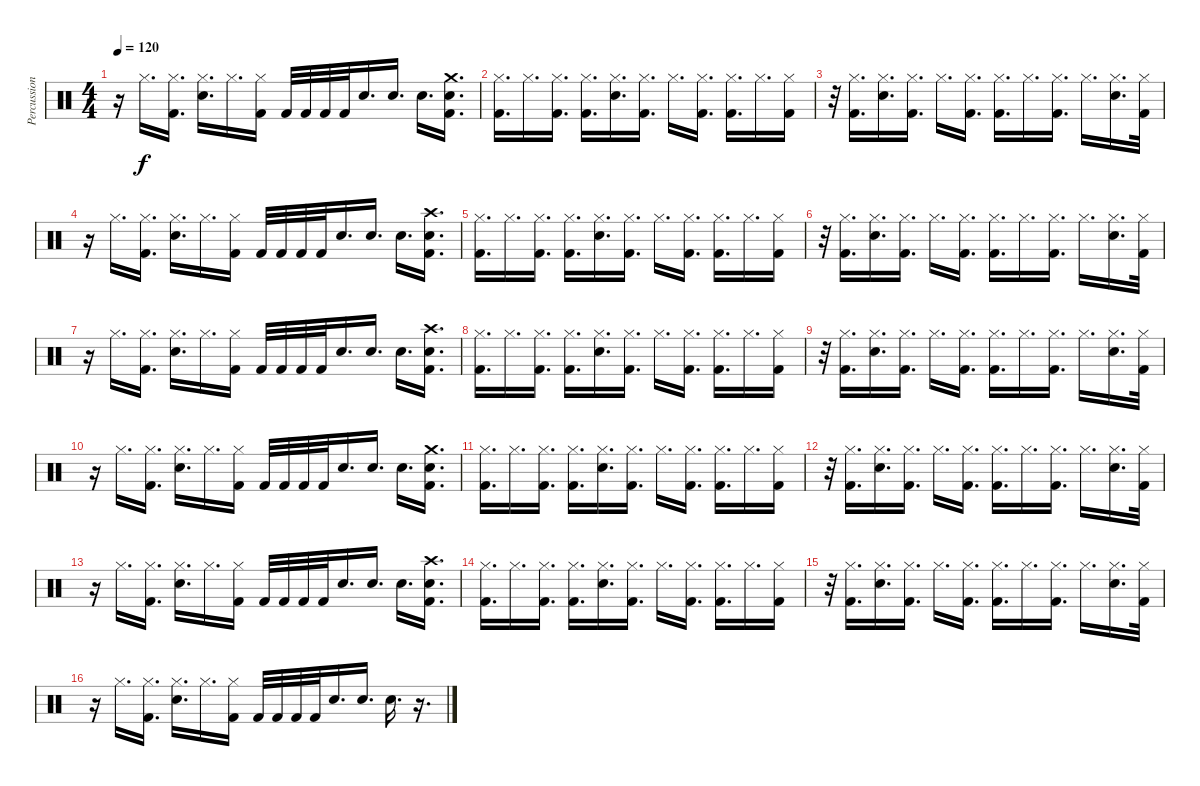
\track ("Percussion" "Percussion") {instrument percussion}
\staff {score}
\articulation defaults
\ts (4 4)
\tempo 120
\clef neutral
\ks c
r.16{dy f} "Hi-Hat (closed)".16{d} ("Hi-Hat (closed)" "Kick (hit) 2").16{d} ("Hi-Hat (closed)" "Electric Snare (hit)").16{d} "Hi-Hat (closed)".16{d} ("Hi-Hat (closed)" "Kick (hit) 2").16 "Kick (hit) 2".32 "Kick (hit) 2".32 "Kick (hit) 2".32 "Kick (hit) 2".32 "Electric Snare (hit)".16{d} "Electric Snare (hit)".16{d} "Electric Snare (hit)".16{d} ("Crash medium (hit)" "Electric Snare (hit)" "Kick (hit) 2").16{d} |
("Hi-Hat (closed)" "Kick (hit) 2").16{d} "Hi-Hat (closed)".16{d} ("Hi-Hat (closed)" "Kick (hit) 2").16{d} ("Hi-Hat (closed)" "Kick (hit) 2").16{d} ("Hi-Hat (closed)" "Electric Snare (hit)").16{d} ("Hi-Hat (closed)" "Kick (hit) 2").16{d} "Hi-Hat (closed)".16{d} ("Hi-Hat (closed)" "Kick (hit) 2").16{d} ("Hi-Hat (closed)" "Kick (hit) 2").16{d} "Hi-Hat (closed)".16{d} ("Hi-Hat (closed)" "Kick (hit) 2").16 |
r.32 ("Hi-Hat (closed)" "Kick (hit) 2").16{d} ("Hi-Hat (closed)" "Electric Snare (hit)").16{d} ("Hi-Hat (closed)" "Kick (hit) 2").16{d} "Hi-Hat (closed)".16{d} ("Hi-Hat (closed)" "Kick (hit) 2").16{d} ("Hi-Hat (closed)" "Kick (hit) 2").16{d} "Hi-Hat (closed)".16{d} ("Hi-Hat (closed)" "Kick (hit) 2").16{d} "Hi-Hat (closed)".16{d} ("Hi-Hat (closed)" "Electric Snare (hit)").16{d} ("Hi-Hat (closed)" "Kick (hit) 2").32 |
r.16 "Hi-Hat (closed)".16{d} ("Hi-Hat (closed)" "Kick (hit) 2").16{d} ("Hi-Hat (closed)" "Electric Snare (hit)").16{d} "Hi-Hat (closed)".16{d} ("Hi-Hat (closed)" "Kick (hit) 2").16 "Kick (hit) 2".32 "Kick (hit) 2".32 "Kick (hit) 2".32 "Kick (hit) 2".32 "Electric Snare (hit)".16{d} "Electric Snare (hit)".16{d} "Electric Snare (hit)".16{d} ("Crash high (hit)" "Electric Snare (hit)" "Kick (hit) 2").16{d} |
("Hi-Hat (closed)" "Kick (hit) 2").16{d} "Hi-Hat (closed)".16{d} ("Hi-Hat (closed)" "Kick (hit) 2").16{d} ("Hi-Hat (closed)" "Kick (hit) 2").16{d} ("Hi-Hat (closed)" "Electric Snare (hit)").16{d} ("Hi-Hat (closed)" "Kick (hit) 2").16{d} "Hi-Hat (closed)".16{d} ("Hi-Hat (closed)" "Kick (hit) 2").16{d} ("Hi-Hat (closed)" "Kick (hit) 2").16{d} "Hi-Hat (closed)".16{d} ("Hi-Hat (closed)" "Kick (hit) 2").16 |
r.32 ("Hi-Hat (closed)" "Kick (hit) 2").16{d} ("Hi-Hat (closed)" "Electric Snare (hit)").16{d} ("Hi-Hat (closed)" "Kick (hit) 2").16{d} "Hi-Hat (closed)".16{d} ("Hi-Hat (closed)" "Kick (hit) 2").16{d} ("Hi-Hat (closed)" "Kick (hit) 2").16{d} "Hi-Hat (closed)".16{d} ("Hi-Hat (closed)" "Kick (hit) 2").16{d} "Hi-Hat (closed)".16{d} ("Hi-Hat (closed)" "Electric Snare (hit)").16{d} ("Hi-Hat (closed)" "Kick (hit) 2").32 |
r.16 "Hi-Hat (closed)".16{d} ("Hi-Hat (closed)" "Kick (hit) 2").16{d} ("Hi-Hat (closed)" "Electric Snare (hit)").16{d} "Hi-Hat (closed)".16{d} ("Hi-Hat (closed)" "Kick (hit) 2").16 "Kick (hit) 2".32 "Kick (hit) 2".32 "Kick (hit) 2".32 "Kick (hit) 2".32 "Electric Snare (hit)".16{d} "Electric Snare (hit)".16{d} "Electric Snare (hit)".16{d} ("Crash high (hit)" "Electric Snare (hit)" "Kick (hit) 2").16{d} |
("Hi-Hat (closed)" "Kick (hit) 2").16{d} "Hi-Hat (closed)".16{d} ("Hi-Hat (closed)" "Kick (hit) 2").16{d} ("Hi-Hat (closed)" "Kick (hit) 2").16{d} ("Hi-Hat (closed)" "Electric Snare (hit)").16{d} ("Hi-Hat (closed)" "Kick (hit) 2").16{d} "Hi-Hat (closed)".16{d} ("Hi-Hat (closed)" "Kick (hit) 2").16{d} ("Hi-Hat (closed)" "Kick (hit) 2").16{d} "Hi-Hat (closed)".16{d} ("Hi-Hat (closed)" "Kick (hit) 2").16 |
r.32 ("Hi-Hat (closed)" "Kick (hit) 2").16{d} ("Hi-Hat (closed)" "Electric Snare (hit)").16{d} ("Hi-Hat (closed)" "Kick (hit) 2").16{d} "Hi-Hat (closed)".16{d} ("Hi-Hat (closed)" "Kick (hit) 2").16{d} ("Hi-Hat (closed)" "Kick (hit) 2").16{d} "Hi-Hat (closed)".16{d} ("Hi-Hat (closed)" "Kick (hit) 2").16{d} "Hi-Hat (closed)".16{d} ("Hi-Hat (closed)" "Electric Snare (hit)").16{d} ("Hi-Hat (closed)" "Kick (hit) 2").32 |
r.16 "Hi-Hat (closed)".16{d} ("Hi-Hat (closed)" "Kick (hit) 2").16{d} ("Hi-Hat (closed)" "Electric Snare (hit)").16{d} "Hi-Hat (closed)".16{d} ("Hi-Hat (closed)" "Kick (hit) 2").16 "Kick (hit) 2".32 "Kick (hit) 2".32 "Kick (hit) 2".32 "Kick (hit) 2".32 "Electric Snare (hit)".16{d} "Electric Snare (hit)".16{d} "Electric Snare (hit)".16{d} ("Crash medium (hit)" "Electric Snare (hit)" "Kick (hit) 2").16{d} |
("Hi-Hat (closed)" "Kick (hit) 2").16{d} "Hi-Hat (closed)".16{d} ("Hi-Hat (closed)" "Kick (hit) 2").16{d} ("Hi-Hat (closed)" "Kick (hit) 2").16{d} ("Hi-Hat (closed)" "Electric Snare (hit)").16{d} ("Hi-Hat (closed)" "Kick (hit) 2").16{d} "Hi-Hat (closed)".16{d} ("Hi-Hat (closed)" "Kick (hit) 2").16{d} ("Hi-Hat (closed)" "Kick (hit) 2").16{d} "Hi-Hat (closed)".16{d} ("Hi-Hat (closed)" "Kick (hit) 2").16 |
r.32 ("Hi-Hat (closed)" "Kick (hit) 2").16{d} ("Hi-Hat (closed)" "Electric Snare (hit)").16{d} ("Hi-Hat (closed)" "Kick (hit) 2").16{d} "Hi-Hat (closed)".16{d} ("Hi-Hat (closed)" "Kick (hit) 2").16{d} ("Hi-Hat (closed)" "Kick (hit) 2").16{d} "Hi-Hat (closed)".16{d} ("Hi-Hat (closed)" "Kick (hit) 2").16{d} "Hi-Hat (closed)".16{d} ("Hi-Hat (closed)" "Electric Snare (hit)").16{d} ("Hi-Hat (closed)" "Kick (hit) 2").32 |
r.16 "Hi-Hat (closed)".16{d} ("Hi-Hat (closed)" "Kick (hit) 2").16{d} ("Hi-Hat (closed)" "Electric Snare (hit)").16{d} "Hi-Hat (closed)".16{d} ("Hi-Hat (closed)" "Kick (hit) 2").16 "Kick (hit) 2".32 "Kick (hit) 2".32 "Kick (hit) 2".32 "Kick (hit) 2".32 "Electric Snare (hit)".16{d} "Electric Snare (hit)".16{d} "Electric Snare (hit)".16{d} ("Crash high (hit)" "Electric Snare (hit)" "Kick (hit) 2").16{d} |
("Hi-Hat (closed)" "Kick (hit) 2").16{d} "Hi-Hat (closed)".16{d} ("Hi-Hat (closed)" "Kick (hit) 2").16{d} ("Hi-Hat (closed)" "Kick (hit) 2").16{d} ("Hi-Hat (closed)" "Electric Snare (hit)").16{d} ("Hi-Hat (closed)" "Kick (hit) 2").16{d} "Hi-Hat (closed)".16{d} ("Hi-Hat (closed)" "Kick (hit) 2").16{d} ("Hi-Hat (closed)" "Kick (hit) 2").16{d} "Hi-Hat (closed)".16{d} ("Hi-Hat (closed)" "Kick (hit) 2").16 |
r.32 ("Hi-Hat (closed)" "Kick (hit) 2").16{d} ("Hi-Hat (closed)" "Electric Snare (hit)").16{d} ("Hi-Hat (closed)" "Kick (hit) 2").16{d} "Hi-Hat (closed)".16{d} ("Hi-Hat (closed)" "Kick (hit) 2").16{d} ("Hi-Hat (closed)" "Kick (hit) 2").16{d} "Hi-Hat (closed)".16{d} ("Hi-Hat (closed)" "Kick (hit) 2").16{d} "Hi-Hat (closed)".16{d} ("Hi-Hat (closed)" "Electric Snare (hit)").16{d} ("Hi-Hat (closed)" "Kick (hit) 2").32 |
r.16 "Hi-Hat (closed)".16{d} ("Hi-Hat (closed)" "Kick (hit) 2").16{d} ("Hi-Hat (closed)" "Electric Snare (hit)").16{d} "Hi-Hat (closed)".16{d} ("Hi-Hat (closed)" "Kick (hit) 2").16 "Kick (hit) 2".32 "Kick (hit) 2".32 "Kick (hit) 2".32 "Kick (hit) 2".32 "Electric Snare (hit)".16{d} "Electric Snare (hit)".16{d} "Electric Snare (hit)".16{d} r.16{d}
